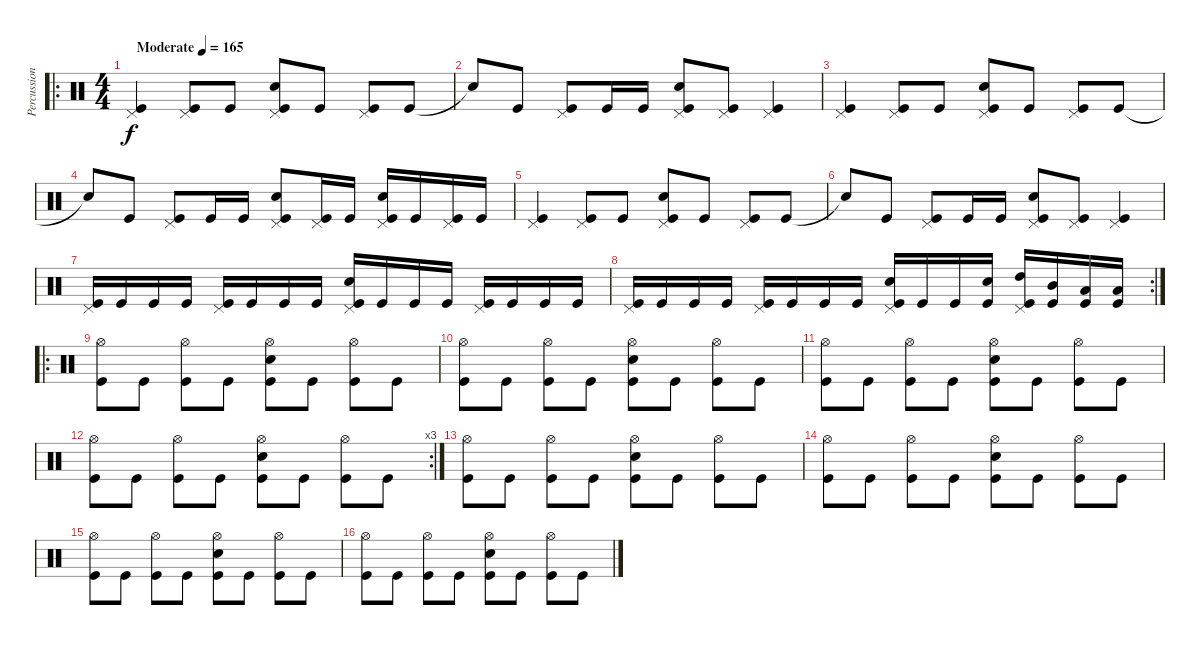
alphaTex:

\track ("Percussion" "Percussion") {instrument percussion}
\staff {score}
\articulation defaults
\ro
\ts (4 4)
\tempo (165 "Moderate")
\clef neutral
\ks c
("Pedal Hi-Hat (hit)" "Kick (hit)").4{dy f} ("Pedal Hi-Hat (hit)" "Kick (hit)").8 "Kick (hit)".8 ("Pedal Hi-Hat (hit)" "Electric Snare (hit)" "Kick (hit)").8 "Kick (hit)".8 ("Pedal Hi-Hat (hit)" "Kick (hit)").8 "Kick (hit)".8 |
"Snare (hit)"{t}.8 "Kick (hit)".8 ("Pedal Hi-Hat (hit)" "Kick (hit)").8 "Kick (hit)".16 "Kick (hit)".16 ("Pedal Hi-Hat (hit)" "Electric Snare (hit)" "Kick (hit)").8 ("Pedal Hi-Hat (hit)" "Kick (hit)").8 ("Pedal Hi-Hat (hit)" "Kick (hit)").4 |
("Pedal Hi-Hat (hit)" "Kick (hit)").4 ("Pedal Hi-Hat (hit)" "Kick (hit)").8 "Kick (hit)".8 ("Pedal Hi-Hat (hit)" "Electric Snare (hit)" "Kick (hit)").8 "Kick (hit)".8 ("Pedal Hi-Hat (hit)" "Kick (hit)").8 "Kick (hit)".8 |
"Snare (hit)"{t}.8 "Kick (hit)".8 ("Pedal Hi-Hat (hit)" "Kick (hit)").8 "Kick (hit)".16 "Kick (hit)".16 ("Pedal Hi-Hat (hit)" "Electric Snare (hit)" "Kick (hit)").8 ("Pedal Hi-Hat (hit)" "Kick (hit)").16 "Kick (hit)".16 ("Pedal Hi-Hat (hit)" "Electric Snare (hit)" "Kick (hit)").16 "Kick (hit)".16 ("Pedal Hi-Hat (hit)" "Kick (hit)").16 "Kick (hit)".16 |
("Pedal Hi-Hat (hit)" "Kick (hit)").4 ("Pedal Hi-Hat (hit)" "Kick (hit)").8 "Kick (hit)".8 ("Pedal Hi-Hat (hit)" "Electric Snare (hit)" "Kick (hit)").8 "Kick (hit)".8 ("Pedal Hi-Hat (hit)" "Kick (hit)").8 "Kick (hit)".8 |
"Snare (hit)"{t}.8 "Kick (hit)".8 ("Pedal Hi-Hat (hit)" "Kick (hit)").8 "Kick (hit)".16 "Kick (hit)".16 ("Pedal Hi-Hat (hit)" "Electric Snare (hit)" "Kick (hit)").8 ("Pedal Hi-Hat (hit)" "Kick (hit)").8 ("Pedal Hi-Hat (hit)" "Kick (hit)").4 |
("Pedal Hi-Hat (hit)" "Kick (hit)").16 "Kick (hit)".16 "Kick (hit)".16 "Kick (hit)".16 ("Pedal Hi-Hat (hit)" "Kick (hit)").16 "Kick (hit)".16 "Kick (hit)".16 "Kick (hit)".16 ("Pedal Hi-Hat (hit)" "Electric Snare (hit)" "Kick (hit)").16 "Kick (hit)".16 "Kick (hit)".16 "Kick (hit)".16 ("Pedal Hi-Hat (hit)" "Kick (hit)").16 "Kick (hit)".16 "Kick (hit)".16 "Kick (hit)".16 |
\rc 2
("Pedal Hi-Hat (hit)" "Kick (hit)").16 "Kick (hit)".16 "Kick (hit)".16 "Kick (hit)".16 ("Pedal Hi-Hat (hit)" "Kick (hit)").16 "Kick (hit)".16 "Kick (hit)".16 "Kick (hit)".16 ("Pedal Hi-Hat (hit)" "Electric Snare (hit)" "Kick (hit)").16 "Kick (hit)".16 "Kick (hit)".16 ("Electric Snare (hit)" "Kick (hit)").16 ("Pedal Hi-Hat (hit)" "High Tom (hit)" "Kick (hit)").16 ("Mid Tom (hit)" "Kick (hit)").16 ("Low Tom (hit)" "Kick (hit)").16 ("Low Tom (hit)" "Kick (hit)").16 |
\ro
("Hi-Hat (open)" "Kick (hit)").8 "Kick (hit)".8 ("Hi-Hat (open)" "Kick (hit)").8 "Kick (hit)".8 ("Hi-Hat (open)" "Electric Snare (hit)" "Kick (hit)").8 "Kick (hit)".8 ("Hi-Hat (open)" "Kick (hit)").8 "Kick (hit)".8 |
("Hi-Hat (open)" "Kick (hit)").8 "Kick (hit)".8 ("Hi-Hat (open)" "Kick (hit)").8 "Kick (hit)".8 ("Hi-Hat (open)" "Electric Snare (hit)" "Kick (hit)").8 "Kick (hit)".8 ("Hi-Hat (open)" "Kick (hit)").8 "Kick (hit)".8 |
("Hi-Hat (open)" "Kick (hit)").8 "Kick (hit)".8 ("Hi-Hat (open)" "Kick (hit)").8 "Kick (hit)".8 ("Hi-Hat (open)" "Electric Snare (hit)" "Kick (hit)").8 "Kick (hit)".8 ("Hi-Hat (open)" "Kick (hit)").8 "Kick (hit)".8 |
\rc 3
("Hi-Hat (open)" "Kick (hit)").8 "Kick (hit)".8 ("Hi-Hat (open)" "Kick (hit)").8 "Kick (hit)".8 ("Hi-Hat (open)" "Electric Snare (hit)" "Kick (hit)").8 "Kick (hit)".8 ("Hi-Hat (open)" "Kick (hit)").8 "Kick (hit)".8 |
("Hi-Hat (open)" "Kick (hit)").8 "Kick (hit)".8 ("Hi-Hat (open)" "Kick (hit)").8 "Kick (hit)".8 ("Hi-Hat (open)" "Electric Snare (hit)" "Kick (hit)").8 "Kick (hit)".8 ("Hi-Hat (open)" "Kick (hit)").8 "Kick (hit)".8 |
("Hi-Hat (open)" "Kick (hit)").8 "Kick (hit)".8 ("Hi-Hat (open)" "Kick (hit)").8 "Kick (hit)".8 ("Hi-Hat (open)" "Electric Snare (hit)" "Kick (hit)").8 "Kick (hit)".8 ("Hi-Hat (open)" "Kick (hit)").8 "Kick (hit)".8 |
("Hi-Hat (open)" "Kick (hit)").8 "Kick (hit)".8 ("Hi-Hat (open)" "Kick (hit)").8 "Kick (hit)".8 ("Hi-Hat (open)" "Electric Snare (hit)" "Kick (hit)").8 "Kick (hit)".8 ("Hi-Hat (open)" "Kick (hit)").8 "Kick (hit)".8 |
("Hi-Hat (open)" "Kick (hit)").8 "Kick (hit)".8 ("Hi-Hat (open)" "Kick (hit)").8 "Kick (hit)".8 ("Hi-Hat (open)" "Electric Snare (hit)" "Kick (hit)").8 "Kick (hit)".8 ("Hi-Hat (open)" "Kick (hit)").8 "Kick (hit)".8
